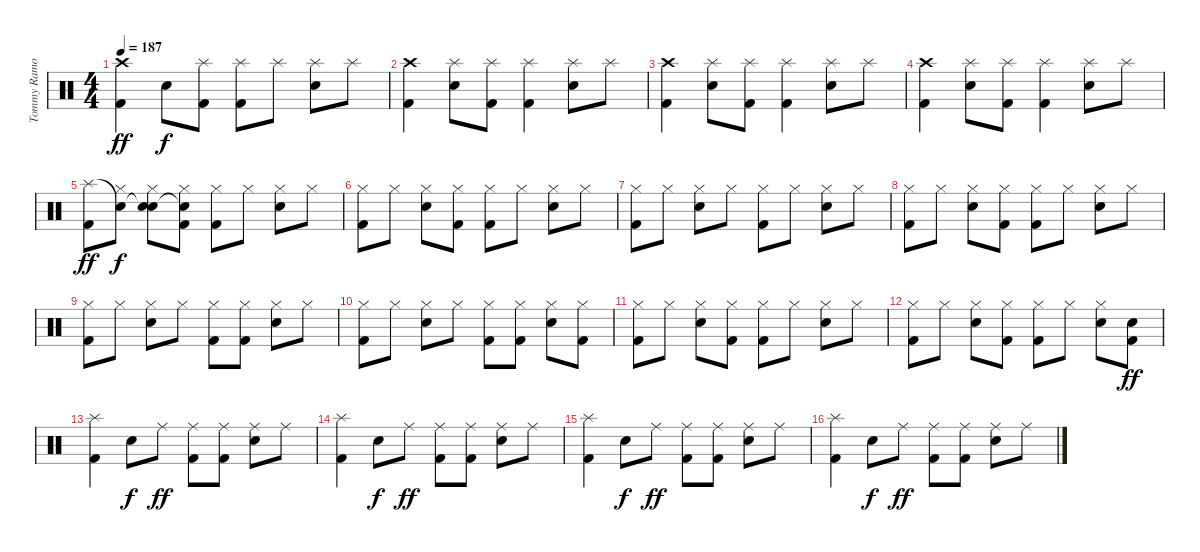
\track ("Tommy Ramone" "Tommy Ramo") {instrument percussion}
\staff {score}
\articulation defaults
\ts (4 4)
\tempo 187
\clef neutral
\ks c
("Kick (hit) 2" "Crash high (hit)").4{dy ff} "Snare (hit) 2".8{dy f} ("Kick (hit) 2" "Splash (hit)").8 ("Kick (hit) 2" "Splash (hit)").8 "Splash (hit)".8{bd 240} ("Snare (hit) 2" "Splash (hit)").8 "Splash (hit)".8{bd 240} |
("Kick (hit) 2" "Crash high (hit)").4 ("Snare (hit) 2" "Splash (hit)").8 ("Kick (hit) 2" "Splash (hit)").8{bd 240} ("Kick (hit) 2" "Splash (hit)").4 ("Snare (hit) 2" "Splash (hit)").8 "Splash (hit)".8 |
("Kick (hit) 2" "Crash high (hit)").4 ("Snare (hit) 2" "Splash (hit)").8 ("Kick (hit) 2" "Splash (hit)").8{bd 240} ("Kick (hit) 2" "Splash (hit)").4 ("Snare (hit) 2" "Splash (hit)").8 "Splash (hit)".8 |
("Kick (hit) 2" "Crash high (hit)").4 ("Snare (hit) 2" "Splash (hit)").8 ("Kick (hit) 2" "Splash (hit)").8{bd 240} ("Kick (hit) 2" "Splash (hit)").4 ("Snare (hit) 2" "Splash (hit)").8 "Splash (hit)".8 |
("Splash (hit)" "Kick (hit) 2").8{dy ff} ("Snare (hit)"{t} "Hi-Hat (closed)").8{dy f} ("Snare (hit)"{t} "Snare (hit) 2" "Hi-Hat (closed)").8 ("Snare (hit)"{t} "Kick (hit) 2" "Hi-Hat (closed)").8 ("Kick (hit) 2" "Hi-Hat (closed)").8 "Hi-Hat (closed)".8 ("Snare (hit) 2" "Hi-Hat (closed)").8 "Hi-Hat (closed)".8 |
("Kick (hit) 2" "Hi-Hat (closed)").8 "Hi-Hat (closed)".8 ("Snare (hit) 2" "Hi-Hat (closed)").8 ("Kick (hit) 2" "Hi-Hat (closed)").8 ("Kick (hit) 2" "Hi-Hat (closed)").8 "Hi-Hat (closed)".8 ("Snare (hit) 2" "Hi-Hat (closed)").8 "Hi-Hat (closed)".8 |
("Kick (hit) 2" "Hi-Hat (closed)").8 "Hi-Hat (closed)".8 ("Snare (hit) 2" "Hi-Hat (closed)").8 "Hi-Hat (closed)".8 ("Kick (hit) 2" "Hi-Hat (closed)").8 "Hi-Hat (closed)".8 ("Snare (hit) 2" "Hi-Hat (closed)").8 "Hi-Hat (closed)".8 |
("Kick (hit) 2" "Hi-Hat (closed)").8 "Hi-Hat (closed)".8 ("Snare (hit) 2" "Hi-Hat (closed)").8 ("Kick (hit) 2" "Hi-Hat (closed)").8 ("Kick (hit) 2" "Hi-Hat (closed)").8 "Hi-Hat (closed)".8 ("Snare (hit) 2" "Hi-Hat (closed)").8 "Hi-Hat (closed)".8 |
("Kick (hit) 2" "Hi-Hat (closed)").8 "Hi-Hat (closed)".8 ("Snare (hit) 2" "Hi-Hat (closed)").8 "Hi-Hat (closed)".8 ("Kick (hit) 2" "Hi-Hat (closed)").8 ("Kick (hit) 2" "Hi-Hat (closed)").8 ("Snare (hit) 2" "Hi-Hat (closed)").8 "Hi-Hat (closed)".8 |
("Kick (hit) 2" "Hi-Hat (closed)").8 "Hi-Hat (closed)".8 ("Snare (hit) 2" "Hi-Hat (closed)").8 "Hi-Hat (closed)".8 ("Kick (hit) 2" "Hi-Hat (closed)").8 ("Kick (hit) 2" "Hi-Hat (closed)").8 ("Snare (hit) 2" "Hi-Hat (closed)").8 ("Kick (hit) 2" "Hi-Hat (closed)").8 |
("Kick (hit) 2" "Hi-Hat (closed)").8 "Hi-Hat (closed)".8 ("Snare (hit) 2" "Hi-Hat (closed)").8 ("Kick (hit) 2" "Hi-Hat (closed)").8 ("Kick (hit) 2" "Hi-Hat (closed)").8 "Hi-Hat (closed)".8 ("Snare (hit) 2" "Hi-Hat (closed)").8 "Hi-Hat (closed)".8 |
("Kick (hit) 2" "Hi-Hat (closed)").8 "Hi-Hat (closed)".8 ("Snare (hit) 2" "Hi-Hat (closed)").8 ("Kick (hit) 2" "Hi-Hat (closed)").8 ("Kick (hit) 2" "Hi-Hat (closed)").8 "Hi-Hat (closed)".8 ("Snare (hit) 2" "Hi-Hat (closed)").8 ("Kick (hit) 2" "Hand Clap (hit)").8{dy ff} |
("Kick (hit) 2" "Splash (hit)").4 "Snare (hit) 2".8{dy f} "Ride (middle)".8{dy ff} ("Kick (hit) 2" "Ride (middle)").8 ("Kick (hit) 2" "Ride (middle)").8 ("Snare (hit) 2" "Ride (middle)").8 "Ride (middle)".8 |
("Kick (hit) 2" "Splash (hit)").4 "Snare (hit) 2".8{dy f} "Ride (middle)".8{dy ff} ("Kick (hit) 2" "Ride (middle)").8 ("Kick (hit) 2" "Ride (middle)").8 ("Snare (hit) 2" "Ride (middle)").8 "Ride (middle)".8 |
("Kick (hit) 2" "Splash (hit)").4 "Snare (hit) 2".8{dy f} "Ride (middle)".8{dy ff} ("Kick (hit) 2" "Ride (middle)").8 ("Kick (hit) 2" "Ride (middle)").8 ("Snare (hit) 2" "Ride (middle)").8 "Ride (middle)".8 |
("Kick (hit) 2" "Splash (hit)").4 "Snare (hit) 2".8{dy f} "Ride (middle)".8{dy ff} ("Kick (hit) 2" "Ride (middle)").8 ("Kick (hit) 2" "Ride (middle)").8 ("Snare (hit) 2" "Ride (middle)").8 "Ride (middle)".8
